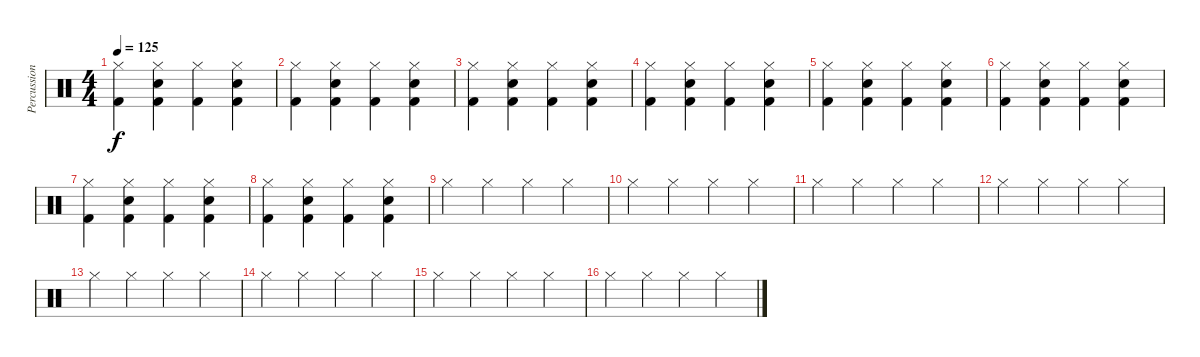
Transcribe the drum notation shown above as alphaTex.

\track ("Percussion" "Percussion") {instrument percussion}
\staff {score}
\articulation defaults
\ts (4 4)
\tempo 125
\clef neutral
\ks c
("Hi-Hat (closed)" "Kick (hit) 2").4{dy f} ("Hi-Hat (closed)" "Hand Clap (hit)" "Kick (hit) 2").4 ("Hi-Hat (closed)" "Kick (hit) 2").4 ("Hi-Hat (closed)" "Hand Clap (hit)" "Kick (hit) 2").4 |
("Hi-Hat (closed)" "Kick (hit) 2").4 ("Hi-Hat (closed)" "Hand Clap (hit)" "Kick (hit) 2").4 ("Hi-Hat (closed)" "Kick (hit) 2").4 ("Hi-Hat (closed)" "Hand Clap (hit)" "Kick (hit) 2").4 |
("Hi-Hat (closed)" "Kick (hit) 2").4 ("Hi-Hat (closed)" "Hand Clap (hit)" "Kick (hit) 2").4 ("Hi-Hat (closed)" "Kick (hit) 2").4 ("Hi-Hat (closed)" "Hand Clap (hit)" "Kick (hit) 2").4 |
("Hi-Hat (closed)" "Kick (hit) 2").4 ("Hi-Hat (closed)" "Hand Clap (hit)" "Kick (hit) 2").4 ("Hi-Hat (closed)" "Kick (hit) 2").4 ("Hi-Hat (closed)" "Hand Clap (hit)" "Kick (hit) 2").4 |
("Hi-Hat (closed)" "Kick (hit) 2").4 ("Hi-Hat (closed)" "Hand Clap (hit)" "Kick (hit) 2").4 ("Hi-Hat (closed)" "Kick (hit) 2").4 ("Hi-Hat (closed)" "Hand Clap (hit)" "Kick (hit) 2").4 |
("Hi-Hat (closed)" "Kick (hit) 2").4 ("Hi-Hat (closed)" "Hand Clap (hit)" "Kick (hit) 2").4 ("Hi-Hat (closed)" "Kick (hit) 2").4 ("Hi-Hat (closed)" "Hand Clap (hit)" "Kick (hit) 2").4 |
("Hi-Hat (closed)" "Kick (hit) 2").4 ("Hi-Hat (closed)" "Hand Clap (hit)" "Kick (hit) 2").4 ("Hi-Hat (closed)" "Kick (hit) 2").4 ("Hi-Hat (closed)" "Hand Clap (hit)" "Kick (hit) 2").4 |
("Hi-Hat (closed)" "Kick (hit) 2").4 ("Hi-Hat (closed)" "Hand Clap (hit)" "Kick (hit) 2").4 ("Hi-Hat (closed)" "Kick (hit) 2").4 ("Hi-Hat (closed)" "Hand Clap (hit)" "Kick (hit) 2").4 |
"Hi-Hat (closed)".4 "Hi-Hat (closed)".4 "Hi-Hat (closed)".4 "Hi-Hat (closed)".4 |
"Hi-Hat (closed)".4 "Hi-Hat (closed)".4 "Hi-Hat (closed)".4 "Hi-Hat (closed)".4 |
"Hi-Hat (closed)".4 "Hi-Hat (closed)".4 "Hi-Hat (closed)".4 "Hi-Hat (closed)".4 |
"Hi-Hat (closed)".4 "Hi-Hat (closed)".4 "Hi-Hat (closed)".4 "Hi-Hat (closed)".4 |
"Hi-Hat (closed)".4 "Hi-Hat (closed)".4 "Hi-Hat (closed)".4 "Hi-Hat (closed)".4 |
"Hi-Hat (closed)".4 "Hi-Hat (closed)".4 "Hi-Hat (closed)".4 "Hi-Hat (closed)".4 |
"Hi-Hat (closed)".4 "Hi-Hat (closed)".4 "Hi-Hat (closed)".4 "Hi-Hat (closed)".4 |
"Hi-Hat (closed)".4 "Hi-Hat (closed)".4 "Hi-Hat (closed)".4 "Hi-Hat (closed)".4
